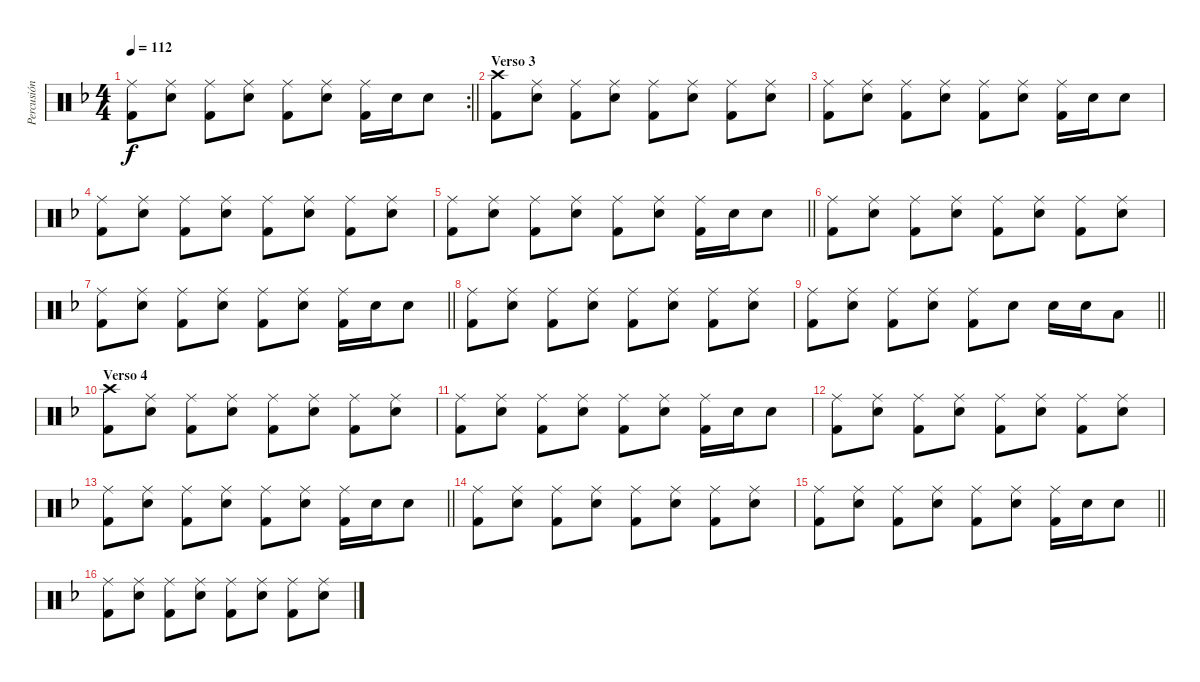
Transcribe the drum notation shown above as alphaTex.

\track ("Percusión" "Percusión") {instrument percussion}
\staff {score}
\articulation defaults
\rc 2
\ts (4 4)
\tempo 112
\clef neutral
\barLineRight lightlight
\ks dminor
("Ride (middle)" "Kick (hit) 2").8{dy f} ("Ride (middle)" "Snare (hit) 2").8 ("Ride (middle)" "Kick (hit) 2").8 ("Ride (middle)" "Snare (hit) 2").8 ("Ride (middle)" "Kick (hit) 2").8 ("Ride (middle)" "Snare (hit) 2").8 ("Ride (middle)" "Kick (hit) 2").16 "Snare (hit) 2".16 "Snare (hit) 2".8 |
\section ("" "Verso 3")
("Crash high (hit)" "Kick (hit) 2").8 ("Ride (middle)" "Snare (hit) 2").8 ("Ride (middle)" "Kick (hit) 2").8 ("Ride (middle)" "Snare (hit) 2").8 ("Ride (middle)" "Kick (hit) 2").8 ("Ride (middle)" "Snare (hit) 2").8 ("Ride (middle)" "Kick (hit) 2").8 ("Ride (middle)" "Snare (hit) 2").8 |
("Ride (middle)" "Kick (hit) 2").8 ("Ride (middle)" "Snare (hit) 2").8 ("Ride (middle)" "Kick (hit) 2").8 ("Ride (middle)" "Snare (hit) 2").8 ("Ride (middle)" "Kick (hit) 2").8 ("Ride (middle)" "Snare (hit) 2").8 ("Ride (middle)" "Kick (hit) 2").16 "Snare (hit) 2".16 "Snare (hit) 2".8 |
("Ride (middle)" "Kick (hit) 2").8 ("Ride (middle)" "Snare (hit) 2").8 ("Ride (middle)" "Kick (hit) 2").8 ("Ride (middle)" "Snare (hit) 2").8 ("Ride (middle)" "Kick (hit) 2").8 ("Ride (middle)" "Snare (hit) 2").8 ("Ride (middle)" "Kick (hit) 2").8 ("Ride (middle)" "Snare (hit) 2").8 |
\barLineRight lightlight
("Ride (middle)" "Kick (hit) 2").8 ("Ride (middle)" "Snare (hit) 2").8 ("Ride (middle)" "Kick (hit) 2").8 ("Ride (middle)" "Snare (hit) 2").8 ("Ride (middle)" "Kick (hit) 2").8 ("Ride (middle)" "Snare (hit) 2").8 ("Ride (middle)" "Kick (hit) 2").16 "Snare (hit) 2".16 "Snare (hit) 2".8 |
("Ride (middle)" "Kick (hit) 2").8 ("Ride (middle)" "Snare (hit) 2").8 ("Ride (middle)" "Kick (hit) 2").8 ("Ride (middle)" "Snare (hit) 2").8 ("Ride (middle)" "Kick (hit) 2").8 ("Ride (middle)" "Snare (hit) 2").8 ("Ride (middle)" "Kick (hit) 2").8 ("Ride (middle)" "Snare (hit) 2").8 |
\barLineRight lightlight
("Ride (middle)" "Kick (hit) 2").8 ("Ride (middle)" "Snare (hit) 2").8 ("Ride (middle)" "Kick (hit) 2").8 ("Ride (middle)" "Snare (hit) 2").8 ("Ride (middle)" "Kick (hit) 2").8 ("Ride (middle)" "Snare (hit) 2").8 ("Ride (middle)" "Kick (hit) 2").16 "Snare (hit) 2".16 "Snare (hit) 2".8 |
("Ride (middle)" "Kick (hit) 2").8 ("Ride (middle)" "Snare (hit) 2").8 ("Ride (middle)" "Kick (hit) 2").8 ("Ride (middle)" "Snare (hit) 2").8 ("Ride (middle)" "Kick (hit) 2").8 ("Ride (middle)" "Snare (hit) 2").8 ("Ride (middle)" "Kick (hit) 2").8 ("Ride (middle)" "Snare (hit) 2").8 |
\barLineRight lightlight
("Ride (middle)" "Kick (hit) 2").8 ("Ride (middle)" "Snare (hit) 2").8 ("Ride (middle)" "Kick (hit) 2").8 ("Ride (middle)" "Snare (hit) 2").8 ("Ride (middle)" "Kick (hit) 2").8 "Snare (hit) 2".8 "Snare (hit) 2".16 "Snare (hit) 2".16 "Low Tom (hit)".8 |
\section ("" "Verso 4")
("Crash high (hit)" "Kick (hit) 2").8 ("Ride (middle)" "Snare (hit) 2").8 ("Ride (middle)" "Kick (hit) 2").8 ("Ride (middle)" "Snare (hit) 2").8 ("Ride (middle)" "Kick (hit) 2").8 ("Ride (middle)" "Snare (hit) 2").8 ("Ride (middle)" "Kick (hit) 2").8 ("Ride (middle)" "Snare (hit) 2").8 |
("Ride (middle)" "Kick (hit) 2").8 ("Ride (middle)" "Snare (hit) 2").8 ("Ride (middle)" "Kick (hit) 2").8 ("Ride (middle)" "Snare (hit) 2").8 ("Ride (middle)" "Kick (hit) 2").8 ("Ride (middle)" "Snare (hit) 2").8 ("Ride (middle)" "Kick (hit) 2").16 "Snare (hit) 2".16 "Snare (hit) 2".8 |
("Ride (middle)" "Kick (hit) 2").8 ("Ride (middle)" "Snare (hit) 2").8 ("Ride (middle)" "Kick (hit) 2").8 ("Ride (middle)" "Snare (hit) 2").8 ("Ride (middle)" "Kick (hit) 2").8 ("Ride (middle)" "Snare (hit) 2").8 ("Ride (middle)" "Kick (hit) 2").8 ("Ride (middle)" "Snare (hit) 2").8 |
\barLineRight lightlight
("Ride (middle)" "Kick (hit) 2").8 ("Ride (middle)" "Snare (hit) 2").8 ("Ride (middle)" "Kick (hit) 2").8 ("Ride (middle)" "Snare (hit) 2").8 ("Ride (middle)" "Kick (hit) 2").8 ("Ride (middle)" "Snare (hit) 2").8 ("Ride (middle)" "Kick (hit) 2").16 "Snare (hit) 2".16 "Snare (hit) 2".8 |
("Ride (middle)" "Kick (hit) 2").8 ("Ride (middle)" "Snare (hit) 2").8 ("Ride (middle)" "Kick (hit) 2").8 ("Ride (middle)" "Snare (hit) 2").8 ("Ride (middle)" "Kick (hit) 2").8 ("Ride (middle)" "Snare (hit) 2").8 ("Ride (middle)" "Kick (hit) 2").8 ("Ride (middle)" "Snare (hit) 2").8 |
\barLineRight lightlight
("Ride (middle)" "Kick (hit) 2").8 ("Ride (middle)" "Snare (hit) 2").8 ("Ride (middle)" "Kick (hit) 2").8 ("Ride (middle)" "Snare (hit) 2").8 ("Ride (middle)" "Kick (hit) 2").8 ("Ride (middle)" "Snare (hit) 2").8 ("Ride (middle)" "Kick (hit) 2").16 "Snare (hit) 2".16 "Snare (hit) 2".8 |
("Ride (middle)" "Kick (hit) 2").8 ("Ride (middle)" "Snare (hit) 2").8 ("Ride (middle)" "Kick (hit) 2").8 ("Ride (middle)" "Snare (hit) 2").8 ("Ride (middle)" "Kick (hit) 2").8 ("Ride (middle)" "Snare (hit) 2").8 ("Ride (middle)" "Kick (hit) 2").8 ("Ride (middle)" "Snare (hit) 2").8
